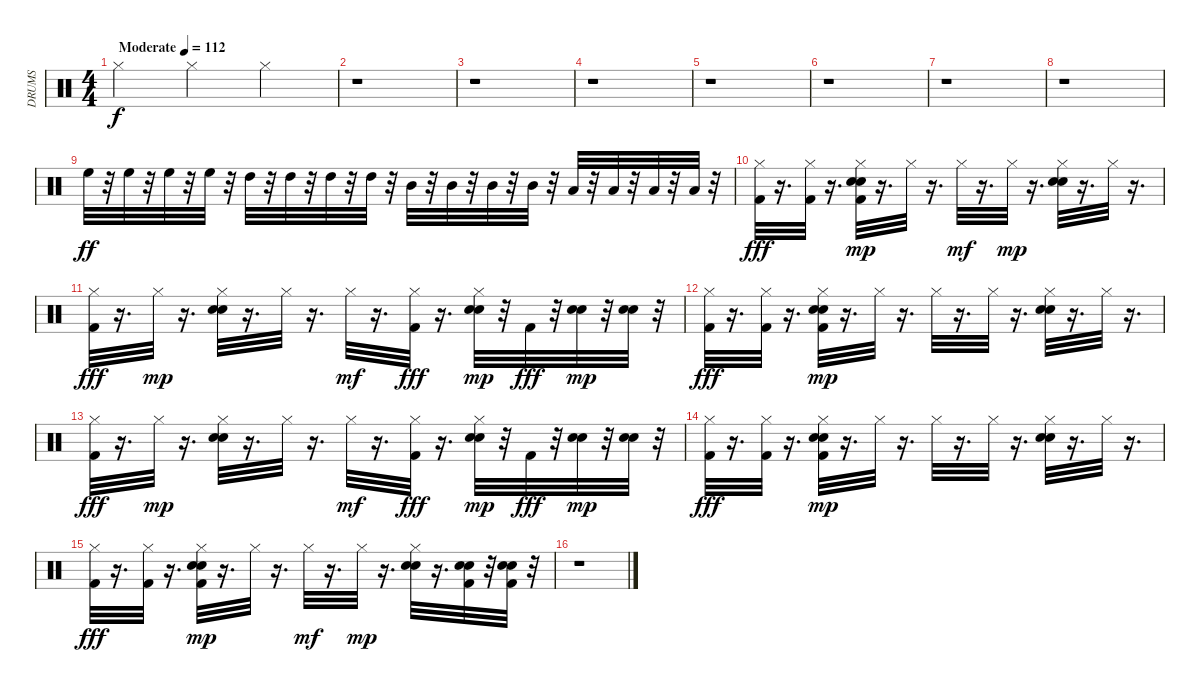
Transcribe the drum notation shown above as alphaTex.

\track ("DRUMS" "DRUMS") {instrument percussion}
\staff {score}
\articulation defaults
\ts (4 4)
\tempo (112 "Moderate")
\clef neutral
\ks c "Hi-Hat (closed)".4{dy f} "Hi-Hat (closed)".4 "Hi-Hat (closed)".4
|
r.1 |
r.1 |
r.1 |
r.1 |
r.1 |
r.1 |
r.1 |
"High Floor Tom (hit)".32{dy ff} r.32 "High Floor Tom (hit)".32 r.32 "High Floor Tom (hit)".32 r.32 "High Floor Tom (hit)".32 r.32 "High Tom (hit)".32 r.32 "High Tom (hit)".32 r.32 "High Tom (hit)".32 r.32 "High Tom (hit)".32 r.32 "Mid Tom (hit)".32 r.32 "Mid Tom (hit)".32 r.32 "Mid Tom (hit)".32 r.32 "Mid Tom (hit)".32 r.32 "Low Tom (hit)".32 r.32 "Low Tom (hit)".32 r.32 "Low Tom (hit)".32 r.32 "Low Tom (hit)".32 r.32 |
("Hi-Hat (closed)" "Kick (hit) 2").32{dy fff} r.16{d} ("Hi-Hat (closed)" "Kick (hit) 2").32 r.16{d} ("Hand Clap (hit)" "Hi-Hat (closed)" "Kick (hit) 2" "Electric Snare (hit)").32{dy mp} r.16{d} "Hi-Hat (closed)".32 r.16{d} "Hi-Hat (closed)".32{dy mf} r.16{d} "Hi-Hat (closed)".32{dy mp} r.16{d} ("Hand Clap (hit)" "Hi-Hat (closed)" "Electric Snare (hit)").32 r.16{d} "Hi-Hat (closed)".32 r.16{d} |
("Hi-Hat (closed)" "Kick (hit) 2").32{dy fff} r.16{d} "Hi-Hat (closed)".32{dy mp} r.16{d} ("Hand Clap (hit)" "Hi-Hat (closed)" "Electric Snare (hit)").32 r.16{d} "Hi-Hat (closed)".32 r.16{d} "Hi-Hat (closed)".32{dy mf} r.16{d} ("Hi-Hat (closed)" "Kick (hit) 2").32{dy fff} r.16{d} ("Hand Clap (hit)" "Hi-Hat (closed)" "Electric Snare (hit)").32{dy mp} r.32 "Kick (hit) 2".32{dy fff} r.32 ("Hand Clap (hit)" "Electric Snare (hit)").32{dy mp} r.32 ("Hand Clap (hit)" "Electric Snare (hit)").32 r.32 |
("Hi-Hat (closed)" "Kick (hit) 2").32{dy fff} r.16{d} ("Hi-Hat (closed)" "Kick (hit) 2").32 r.16{d} ("Hand Clap (hit)" "Hi-Hat (closed)" "Kick (hit) 2" "Electric Snare (hit)").32{dy mp} r.16{d} "Hi-Hat (closed)".32 r.16{d} "Hi-Hat (closed)".32 r.16{d} "Hi-Hat (closed)".32 r.16{d} ("Hand Clap (hit)" "Hi-Hat (closed)" "Electric Snare (hit)").32 r.16{d} "Hi-Hat (closed)".32 r.16{d} |
("Hi-Hat (closed)" "Kick (hit) 2").32{dy fff} r.16{d} "Hi-Hat (closed)".32{dy mp} r.16{d} ("Hand Clap (hit)" "Hi-Hat (closed)" "Electric Snare (hit)").32 r.16{d} "Hi-Hat (closed)".32 r.16{d} "Hi-Hat (closed)".32{dy mf} r.16{d} ("Hi-Hat (closed)" "Kick (hit) 2").32{dy fff} r.16{d} ("Hand Clap (hit)" "Hi-Hat (closed)" "Electric Snare (hit)").32{dy mp} r.32 "Kick (hit) 2".32{dy fff} r.32 ("Hand Clap (hit)" "Electric Snare (hit)").32{dy mp} r.32 ("Hand Clap (hit)" "Electric Snare (hit)").32 r.32 |
("Hi-Hat (closed)" "Kick (hit) 2").32{dy fff} r.16{d} ("Hi-Hat (closed)" "Kick (hit) 2").32 r.16{d} ("Hand Clap (hit)" "Hi-Hat (closed)" "Kick (hit) 2" "Electric Snare (hit)").32{dy mp} r.16{d} "Hi-Hat (closed)".32 r.16{d} "Hi-Hat (closed)".32 r.16{d} "Hi-Hat (closed)".32 r.16{d} ("Hand Clap (hit)" "Hi-Hat (closed)" "Electric Snare (hit)").32 r.16{d} "Hi-Hat (closed)".32 r.16{d} |
("Hi-Hat (closed)" "Kick (hit) 2").32{dy fff} r.16{d} ("Hi-Hat (closed)" "Kick (hit) 2").32 r.16{d} ("Hand Clap (hit)" "Hi-Hat (closed)" "Kick (hit) 2" "Electric Snare (hit)").32{dy mp} r.16{d} "Hi-Hat (closed)".32 r.16{d} "Hi-Hat (closed)".32{dy mf} r.16{d} "Hi-Hat (closed)".32{dy mp} r.16{d} ("Hand Clap (hit)" "Hi-Hat (closed)" "Electric Snare (hit)").32 r.16{d} ("Hand Clap (hit)" "Kick (hit) 2" "Electric Snare (hit)").32 r.32 ("Hand Clap (hit)" "Kick (hit) 2" "Electric Snare (hit)").32 r.32 |
r.1
